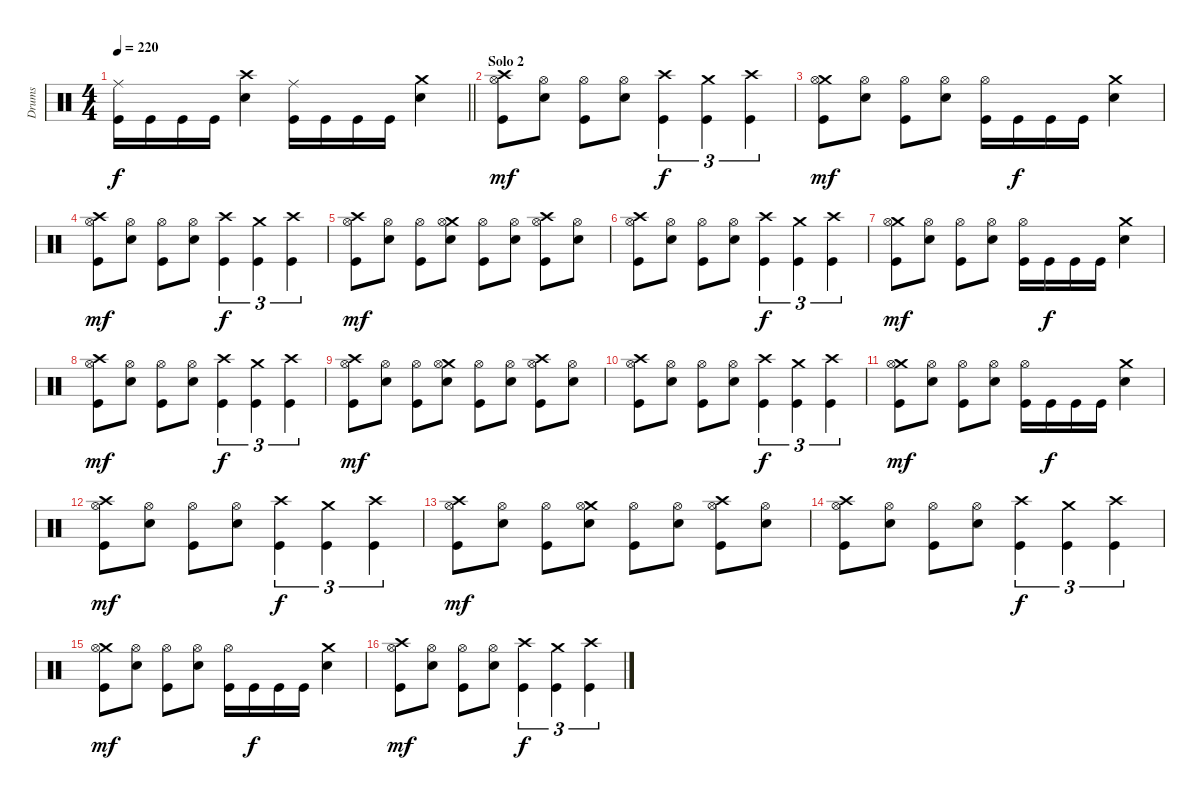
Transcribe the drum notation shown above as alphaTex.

\track ("Drums" "Drums") {instrument percussion}
\staff {score}
\articulation defaults
\ts (4 4)
\tempo 220
\clef neutral
\barLineRight lightlight
\ks c
("Ride (middle)" "Kick (hit)").16{dy f} "Kick (hit)".16 "Kick (hit)".16 "Kick (hit)".16 ("Crash high (hit)" "Electric Snare (hit)").4 ("Ride (middle)" "Kick (hit)").16 "Kick (hit)".16 "Kick (hit)".16 "Kick (hit)".16 ("Crash medium (hit)" "Electric Snare (hit)").4 |
\section ("" "Solo 2")
("Crash high (hit)" "Hi-Hat (open)" "Kick (hit)").8{dy mf} ("Hi-Hat (open)" "Electric Snare (hit)").8 ("Hi-Hat (open)" "Kick (hit)").8 ("Hi-Hat (open)" "Electric Snare (hit)").8 ("Crash high (hit)" "Kick (hit)").4{tu (3 2) dy f} ("Crash medium (hit)" "Kick (hit)").4{tu (3 2)} ("Crash high (hit)" "Kick (hit)").4{tu (3 2)} |
("Crash medium (hit)" "Hi-Hat (open)" "Kick (hit)").8{dy mf} ("Hi-Hat (open)" "Electric Snare (hit)").8 ("Hi-Hat (open)" "Kick (hit)").8 ("Hi-Hat (open)" "Electric Snare (hit)").8 ("Hi-Hat (open)" "Kick (hit)").16 "Kick (hit)".16{dy f} "Kick (hit)".16 "Kick (hit)".16 ("Crash medium (hit)" "Electric Snare (hit)").4 |
("Crash high (hit)" "Hi-Hat (open)" "Kick (hit)").8{dy mf} ("Hi-Hat (open)" "Electric Snare (hit)").8 ("Hi-Hat (open)" "Kick (hit)").8 ("Hi-Hat (open)" "Electric Snare (hit)").8 ("Crash high (hit)" "Kick (hit)").4{tu (3 2) dy f} ("Crash medium (hit)" "Kick (hit)").4{tu (3 2)} ("Crash high (hit)" "Kick (hit)").4{tu (3 2)} |
("Crash high (hit)" "Hi-Hat (open)" "Kick (hit)").8{dy mf} ("Hi-Hat (open)" "Electric Snare (hit)").8 ("Hi-Hat (open)" "Kick (hit)").8 ("Crash medium (hit)" "Hi-Hat (open)" "Electric Snare (hit)").8 ("Hi-Hat (open)" "Kick (hit)").8 ("Hi-Hat (open)" "Electric Snare (hit)").8 ("Crash high (hit)" "Hi-Hat (open)" "Kick (hit)").8 ("Hi-Hat (open)" "Electric Snare (hit)").8 |
("Crash high (hit)" "Hi-Hat (open)" "Kick (hit)").8 ("Hi-Hat (open)" "Electric Snare (hit)").8 ("Hi-Hat (open)" "Kick (hit)").8 ("Hi-Hat (open)" "Electric Snare (hit)").8 ("Crash high (hit)" "Kick (hit)").4{tu (3 2) dy f} ("Crash medium (hit)" "Kick (hit)").4{tu (3 2)} ("Crash high (hit)" "Kick (hit)").4{tu (3 2)} |
("Crash medium (hit)" "Hi-Hat (open)" "Kick (hit)").8{dy mf} ("Hi-Hat (open)" "Electric Snare (hit)").8 ("Hi-Hat (open)" "Kick (hit)").8 ("Hi-Hat (open)" "Electric Snare (hit)").8 ("Hi-Hat (open)" "Kick (hit)").16 "Kick (hit)".16{dy f} "Kick (hit)".16 "Kick (hit)".16 ("Crash medium (hit)" "Electric Snare (hit)").4 |
("Crash high (hit)" "Hi-Hat (open)" "Kick (hit)").8{dy mf} ("Hi-Hat (open)" "Electric Snare (hit)").8 ("Hi-Hat (open)" "Kick (hit)").8 ("Hi-Hat (open)" "Electric Snare (hit)").8 ("Crash high (hit)" "Kick (hit)").4{tu (3 2) dy f} ("Crash medium (hit)" "Kick (hit)").4{tu (3 2)} ("Crash high (hit)" "Kick (hit)").4{tu (3 2)} |
("Crash high (hit)" "Hi-Hat (open)" "Kick (hit)").8{dy mf} ("Hi-Hat (open)" "Electric Snare (hit)").8 ("Hi-Hat (open)" "Kick (hit)").8 ("Crash medium (hit)" "Hi-Hat (open)" "Electric Snare (hit)").8 ("Hi-Hat (open)" "Kick (hit)").8 ("Hi-Hat (open)" "Electric Snare (hit)").8 ("Crash high (hit)" "Hi-Hat (open)" "Kick (hit)").8 ("Hi-Hat (open)" "Electric Snare (hit)").8 |
("Crash high (hit)" "Hi-Hat (open)" "Kick (hit)").8 ("Hi-Hat (open)" "Electric Snare (hit)").8 ("Hi-Hat (open)" "Kick (hit)").8 ("Hi-Hat (open)" "Electric Snare (hit)").8 ("Crash high (hit)" "Kick (hit)").4{tu (3 2) dy f} ("Crash medium (hit)" "Kick (hit)").4{tu (3 2)} ("Crash high (hit)" "Kick (hit)").4{tu (3 2)} |
("Crash medium (hit)" "Hi-Hat (open)" "Kick (hit)").8{dy mf} ("Hi-Hat (open)" "Electric Snare (hit)").8 ("Hi-Hat (open)" "Kick (hit)").8 ("Hi-Hat (open)" "Electric Snare (hit)").8 ("Hi-Hat (open)" "Kick (hit)").16 "Kick (hit)".16{dy f} "Kick (hit)".16 "Kick (hit)".16 ("Crash medium (hit)" "Electric Snare (hit)").4 |
("Crash high (hit)" "Hi-Hat (open)" "Kick (hit)").8{dy mf} ("Hi-Hat (open)" "Electric Snare (hit)").8 ("Hi-Hat (open)" "Kick (hit)").8 ("Hi-Hat (open)" "Electric Snare (hit)").8 ("Crash high (hit)" "Kick (hit)").4{tu (3 2) dy f} ("Crash medium (hit)" "Kick (hit)").4{tu (3 2)} ("Crash high (hit)" "Kick (hit)").4{tu (3 2)} |
("Crash high (hit)" "Hi-Hat (open)" "Kick (hit)").8{dy mf} ("Hi-Hat (open)" "Electric Snare (hit)").8 ("Hi-Hat (open)" "Kick (hit)").8 ("Crash medium (hit)" "Hi-Hat (open)" "Electric Snare (hit)").8 ("Hi-Hat (open)" "Kick (hit)").8 ("Hi-Hat (open)" "Electric Snare (hit)").8 ("Crash high (hit)" "Hi-Hat (open)" "Kick (hit)").8 ("Hi-Hat (open)" "Electric Snare (hit)").8 |
("Crash high (hit)" "Hi-Hat (open)" "Kick (hit)").8 ("Hi-Hat (open)" "Electric Snare (hit)").8 ("Hi-Hat (open)" "Kick (hit)").8 ("Hi-Hat (open)" "Electric Snare (hit)").8 ("Crash high (hit)" "Kick (hit)").4{tu (3 2) dy f} ("Crash medium (hit)" "Kick (hit)").4{tu (3 2)} ("Crash high (hit)" "Kick (hit)").4{tu (3 2)} |
("Crash medium (hit)" "Hi-Hat (open)" "Kick (hit)").8{dy mf} ("Hi-Hat (open)" "Electric Snare (hit)").8 ("Hi-Hat (open)" "Kick (hit)").8 ("Hi-Hat (open)" "Electric Snare (hit)").8 ("Hi-Hat (open)" "Kick (hit)").16 "Kick (hit)".16{dy f} "Kick (hit)".16 "Kick (hit)".16 ("Crash medium (hit)" "Electric Snare (hit)").4 |
("Crash high (hit)" "Hi-Hat (open)" "Kick (hit)").8{dy mf} ("Hi-Hat (open)" "Electric Snare (hit)").8 ("Hi-Hat (open)" "Kick (hit)").8 ("Hi-Hat (open)" "Electric Snare (hit)").8 ("Crash high (hit)" "Kick (hit)").4{tu (3 2) dy f} ("Crash medium (hit)" "Kick (hit)").4{tu (3 2)} ("Crash high (hit)" "Kick (hit)").4{tu (3 2)}
